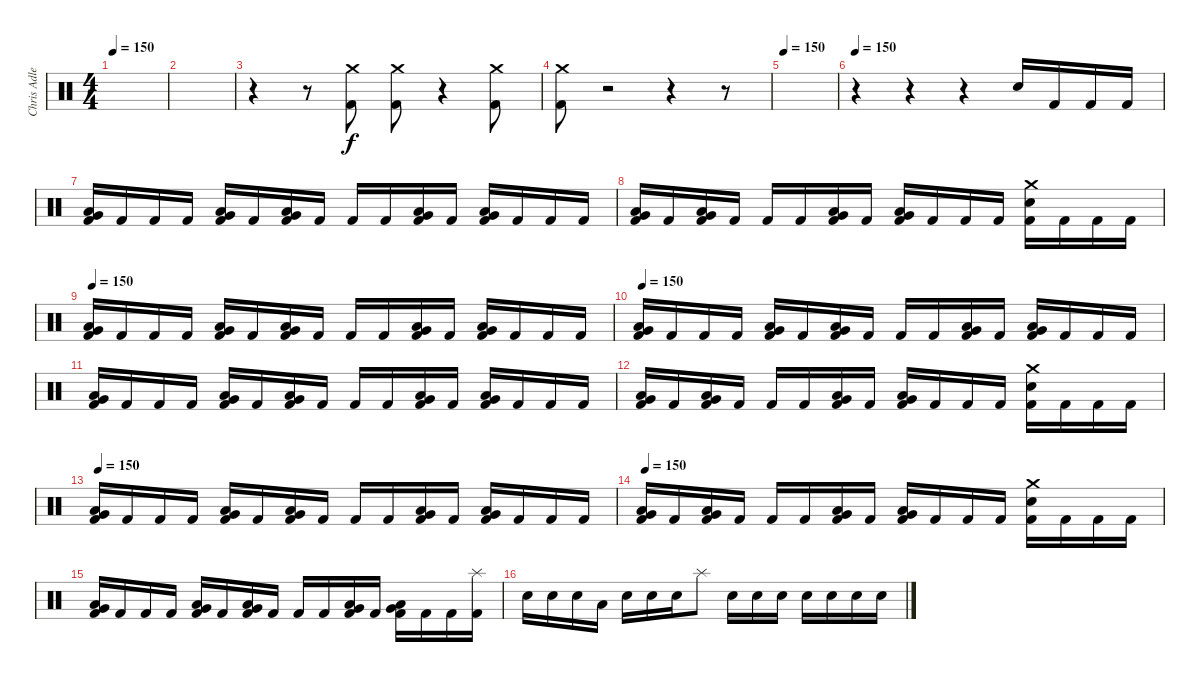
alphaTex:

\track ("Chris Adler" "Chris Adle") {instrument percussion}
\staff {score}
\articulation defaults
\ts (4 4)
\tempo 150
\clef neutral
\ks c
|
|
r.4 r.8 ("Crash medium (hit)" "Kick (hit) 2").8 ("Crash medium (hit)" "Kick (hit) 2").8 r.4 ("Crash medium (hit)" "Kick (hit) 2").8 |
("Crash medium (hit)" "Kick (hit) 2").8 r.2 r.4 r.8 |
\tempo 150
|
\tempo 150
r.4 r.4 r.4 "Snare (hit) 2".16 "Kick (hit) 2".16 "Kick (hit) 2".16 "Kick (hit) 2".16 |
("Low Tom (hit)" "Very Low Tom (hit)" "Kick (hit) 2").16 "Kick (hit) 2".16 "Kick (hit) 2".16 "Kick (hit) 2".16 ("Low Tom (hit)" "Very Low Tom (hit)" "Kick (hit) 2").16 "Kick (hit) 2".16 ("Low Tom (hit)" "Very Low Tom (hit)" "Kick (hit) 2").16 "Kick (hit) 2".16 "Kick (hit) 2".16 "Kick (hit) 2".16 ("Low Tom (hit)" "Very Low Tom (hit)" "Kick (hit) 2").16 "Kick (hit) 2".16 ("Low Tom (hit)" "Very Low Tom (hit)" "Kick (hit) 2").16 "Kick (hit) 2".16 "Kick (hit) 2".16 "Kick (hit) 2".16 |
("Low Tom (hit)" "Very Low Tom (hit)" "Kick (hit) 2").16 "Kick (hit) 2".16 ("Low Tom (hit)" "Very Low Tom (hit)" "Kick (hit) 2").16 "Kick (hit) 2".16 "Kick (hit) 2".16 "Kick (hit) 2".16 ("Low Tom (hit)" "Very Low Tom (hit)" "Kick (hit) 2").16 "Kick (hit) 2".16 ("Low Tom (hit)" "Very Low Tom (hit)" "Kick (hit) 2").16 "Kick (hit) 2".16 "Kick (hit) 2".16 "Kick (hit) 2".16 ("Crash medium (hit)" "Snare (hit) 2" "Kick (hit) 2").16 "Kick (hit) 2".16 "Kick (hit) 2".16 "Kick (hit) 2".16 |
\tempo 150
("Low Tom (hit)" "Very Low Tom (hit)" "Kick (hit) 2").16 "Kick (hit) 2".16 "Kick (hit) 2".16 "Kick (hit) 2".16 ("Low Tom (hit)" "Very Low Tom (hit)" "Kick (hit) 2").16 "Kick (hit) 2".16 ("Low Tom (hit)" "Very Low Tom (hit)" "Kick (hit) 2").16 "Kick (hit) 2".16 "Kick (hit) 2".16 "Kick (hit) 2".16 ("Low Tom (hit)" "Very Low Tom (hit)" "Kick (hit) 2").16 "Kick (hit) 2".16 ("Low Tom (hit)" "Very Low Tom (hit)" "Kick (hit) 2").16 "Kick (hit) 2".16 "Kick (hit) 2".16 "Kick (hit) 2".16 |
\tempo 150
("Low Tom (hit)" "Very Low Tom (hit)" "Kick (hit) 2").16 "Kick (hit) 2".16 "Kick (hit) 2".16 "Kick (hit) 2".16 ("Low Tom (hit)" "Very Low Tom (hit)" "Kick (hit) 2").16 "Kick (hit) 2".16 ("Low Tom (hit)" "Very Low Tom (hit)" "Kick (hit) 2").16 "Kick (hit) 2".16 "Kick (hit) 2".16 "Kick (hit) 2".16 ("Low Tom (hit)" "Very Low Tom (hit)" "Kick (hit) 2").16 "Kick (hit) 2".16 ("Low Tom (hit)" "Very Low Tom (hit)" "Kick (hit) 2").16 "Kick (hit) 2".16 "Kick (hit) 2".16 "Kick (hit) 2".16 |
("Low Tom (hit)" "Very Low Tom (hit)" "Kick (hit) 2").16 "Kick (hit) 2".16 "Kick (hit) 2".16 "Kick (hit) 2".16 ("Low Tom (hit)" "Very Low Tom (hit)" "Kick (hit) 2").16 "Kick (hit) 2".16 ("Low Tom (hit)" "Very Low Tom (hit)" "Kick (hit) 2").16 "Kick (hit) 2".16 "Kick (hit) 2".16 "Kick (hit) 2".16 ("Low Tom (hit)" "Very Low Tom (hit)" "Kick (hit) 2").16 "Kick (hit) 2".16 ("Low Tom (hit)" "Very Low Tom (hit)" "Kick (hit) 2").16 "Kick (hit) 2".16 "Kick (hit) 2".16 "Kick (hit) 2".16 |
("Low Tom (hit)" "Very Low Tom (hit)" "Kick (hit) 2").16 "Kick (hit) 2".16 ("Low Tom (hit)" "Very Low Tom (hit)" "Kick (hit) 2").16 "Kick (hit) 2".16 "Kick (hit) 2".16 "Kick (hit) 2".16 ("Low Tom (hit)" "Very Low Tom (hit)" "Kick (hit) 2").16 "Kick (hit) 2".16 ("Low Tom (hit)" "Very Low Tom (hit)" "Kick (hit) 2").16 "Kick (hit) 2".16 "Kick (hit) 2".16 "Kick (hit) 2".16 ("Crash medium (hit)" "Snare (hit) 2" "Kick (hit) 2").16 "Kick (hit) 2".16 "Kick (hit) 2".16 "Kick (hit) 2".16 |
\tempo 150
("Low Tom (hit)" "Very Low Tom (hit)" "Kick (hit) 2").16 "Kick (hit) 2".16 "Kick (hit) 2".16 "Kick (hit) 2".16 ("Low Tom (hit)" "Very Low Tom (hit)" "Kick (hit) 2").16 "Kick (hit) 2".16 ("Low Tom (hit)" "Very Low Tom (hit)" "Kick (hit) 2").16 "Kick (hit) 2".16 "Kick (hit) 2".16 "Kick (hit) 2".16 ("Low Tom (hit)" "Very Low Tom (hit)" "Kick (hit) 2").16 "Kick (hit) 2".16 ("Low Tom (hit)" "Very Low Tom (hit)" "Kick (hit) 2").16 "Kick (hit) 2".16 "Kick (hit) 2".16 "Kick (hit) 2".16 |
\tempo 150
("Low Tom (hit)" "Very Low Tom (hit)" "Kick (hit) 2").16 "Kick (hit) 2".16 ("Low Tom (hit)" "Very Low Tom (hit)" "Kick (hit) 2").16 "Kick (hit) 2".16 "Kick (hit) 2".16 "Kick (hit) 2".16 ("Low Tom (hit)" "Very Low Tom (hit)" "Kick (hit) 2").16 "Kick (hit) 2".16 ("Low Tom (hit)" "Very Low Tom (hit)" "Kick (hit) 2").16 "Kick (hit) 2".16 "Kick (hit) 2".16 "Kick (hit) 2".16 ("Crash medium (hit)" "Snare (hit) 2" "Kick (hit) 2").16 "Kick (hit) 2".16 "Kick (hit) 2".16 "Kick (hit) 2".16 |
("Low Tom (hit)" "Very Low Tom (hit)" "Kick (hit) 2").16 "Kick (hit) 2".16 "Kick (hit) 2".16 "Kick (hit) 2".16 ("Low Tom (hit)" "Very Low Tom (hit)" "Kick (hit) 2").16 "Kick (hit) 2".16 ("Low Tom (hit)" "Very Low Tom (hit)" "Kick (hit) 2").16 "Kick (hit) 2".16 "Kick (hit) 2".16 "Kick (hit) 2".16 ("Low Tom (hit)" "Very Low Tom (hit)" "Kick (hit) 2").16 "Kick (hit) 2".16 ("Low Tom (hit)" "Very Low Tom (hit)" "Kick (hit) 2").16 "Kick (hit) 2".16 "Kick (hit) 2".16 ("Splash (hit)" "Kick (hit) 2").16 |
"Snare (hit) 2".16 "Snare (hit) 2".16 "Snare (hit) 2".16 "Low Tom (hit)".16 "Snare (hit) 2".16 "Snare (hit) 2".16 "Snare (hit) 2".16 "Splash (hit)".8 "Snare (hit) 2".16 "Snare (hit) 2".16 "Snare (hit) 2".16 "Snare (hit) 2".16 "Snare (hit) 2".16 "Snare (hit) 2".16 "Snare (hit) 2".16
